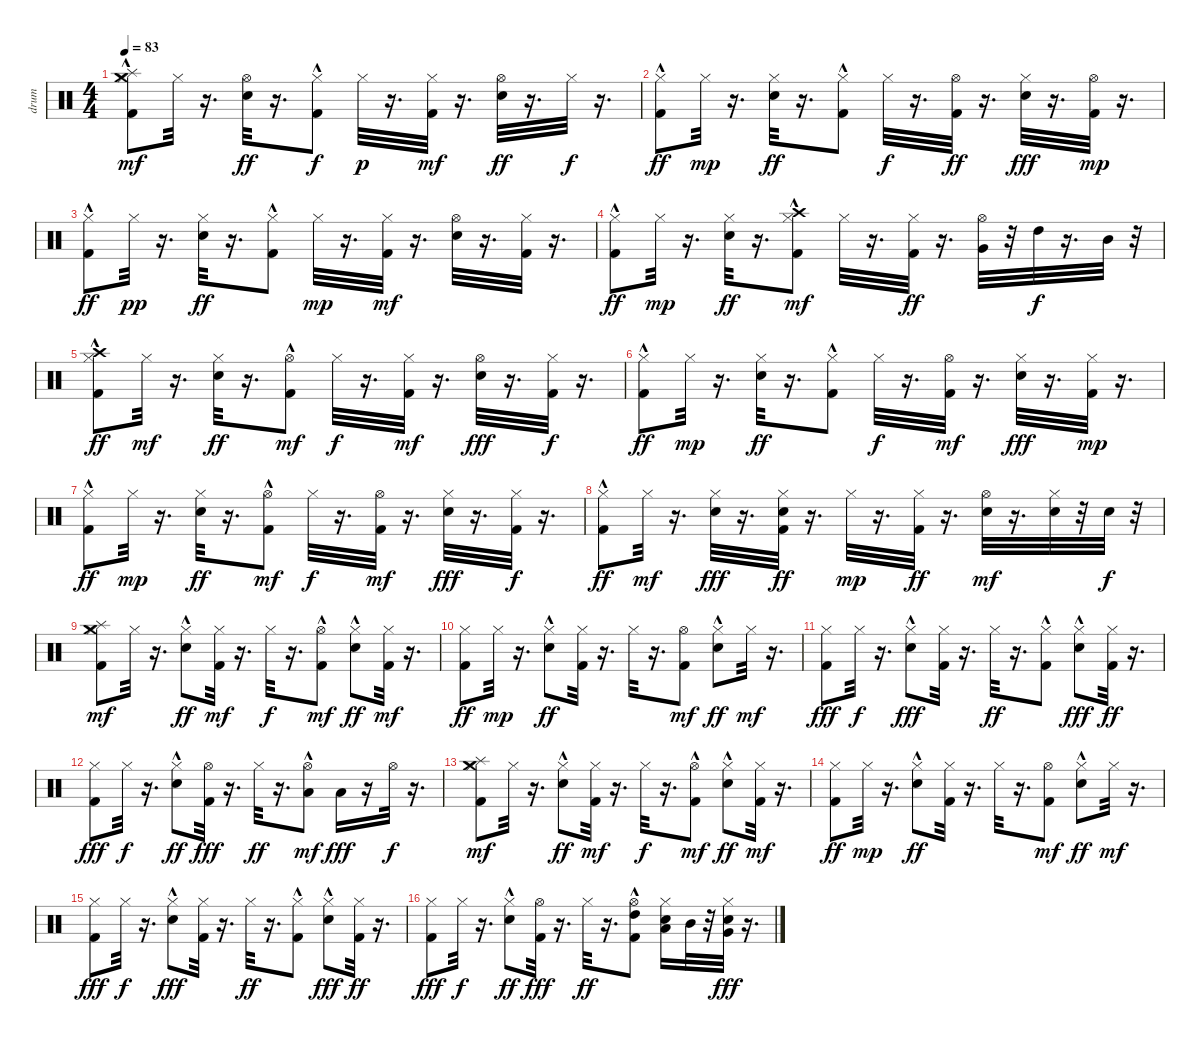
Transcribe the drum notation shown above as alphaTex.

\track ("drum" "drum") {instrument percussion}
\staff {score}
\articulation defaults
\ts (4 4)
\tempo 83
\clef neutral
\ks c
("Kick (hit) 2"{hac} "Hi-Hat (closed)" "Splash (hit)" "Crash medium (hit)").8{dy mf} "Hi-Hat (closed)".32 r.16{d} ("Electric Snare (hit)" "Hi-Hat (open)").32{dy ff} r.16{d} ("Kick (hit) 2"{hac} "Hi-Hat (closed)").8{dy f} "Hi-Hat (closed)".32{dy p} r.16{d} ("Kick (hit) 2" "Hi-Hat (closed)").32{dy mf} r.16{d} ("Electric Snare (hit)" "Hi-Hat (open)").32{dy ff} r.16{d} "Hi-Hat (closed)".32{dy f} r.16{d} |
("Kick (hit) 2"{hac} "Hi-Hat (closed)").8{dy ff} "Hi-Hat (closed)".32{dy mp} r.16{d} ("Electric Snare (hit)" "Hi-Hat (closed)").32{dy ff} r.16{d} ("Kick (hit) 2"{hac} "Hi-Hat (closed)").8 "Hi-Hat (closed)".32{dy f} r.16{d} ("Kick (hit) 2" "Hi-Hat (open)").32{dy ff} r.16{d} ("Electric Snare (hit)" "Hi-Hat (closed)").32{dy fff} r.16{d} ("Kick (hit) 2" "Hi-Hat (open)").32{dy mp} r.16{d} |
("Kick (hit) 2"{hac} "Hi-Hat (closed)").8{dy ff} "Hi-Hat (closed)".32{dy pp} r.16{d} ("Electric Snare (hit)" "Hi-Hat (closed)").32{dy ff} r.16{d} ("Kick (hit) 2"{hac} "Hi-Hat (closed)").8 "Hi-Hat (closed)".32{dy mp} r.16{d} ("Kick (hit) 2" "Hi-Hat (closed)").32{dy mf} r.16{d} ("Electric Snare (hit)" "Hi-Hat (open)").32 r.16{d} ("Kick (hit) 2" "Hi-Hat (closed)").32 r.16{d} |
("Kick (hit) 2"{hac} "Hi-Hat (closed)").8{dy ff} "Hi-Hat (closed)".32{dy mp} r.16{d} ("Electric Snare (hit)" "Hi-Hat (closed)").32{dy ff} r.16{d} ("Kick (hit) 2"{hac} "Hi-Hat (closed)" "Crash high (hit)"{hac}).8{dy mf} "Hi-Hat (closed)".32 r.16{d} ("Kick (hit) 2" "Hi-Hat (closed)").32{dy ff} r.16{d} ("Very Low Tom (hit)" "Hi-Hat (open)").32 r.32 "High Tom (hit)".32{dy f} r.16{d} "Mid Tom (hit)".32 r.32 |
("Kick (hit) 2"{hac} "Hi-Hat (closed)" "Crash high (hit)").8{dy ff} "Hi-Hat (closed)".32{dy mf} r.16{d} ("Electric Snare (hit)" "Hi-Hat (closed)").32{dy ff} r.16{d} ("Kick (hit) 2"{hac} "Hi-Hat (open)").8{dy mf} "Hi-Hat (closed)".32{dy f} r.16{d} ("Kick (hit) 2" "Hi-Hat (closed)").32{dy mf} r.16{d} ("Electric Snare (hit)" "Hi-Hat (open)").32{dy fff} r.16{d} ("Kick (hit) 2" "Hi-Hat (closed)").32{dy f} r.16{d} |
("Kick (hit) 2"{hac} "Hi-Hat (closed)").8{dy ff} "Hi-Hat (closed)".32{dy mp} r.16{d} ("Electric Snare (hit)" "Hi-Hat (closed)").32{dy ff} r.16{d} ("Kick (hit) 2"{hac} "Hi-Hat (closed)").8 "Hi-Hat (closed)".32{dy f} r.16{d} ("Kick (hit) 2" "Hi-Hat (open)").32{dy mf} r.16{d} ("Electric Snare (hit)" "Hi-Hat (closed)").32{dy fff} r.16{d} ("Kick (hit) 2" "Hi-Hat (closed)").32{dy mp} r.16{d} |
("Kick (hit) 2"{hac} "Hi-Hat (closed)").8{dy ff} "Hi-Hat (closed)".32{dy mp} r.16{d} ("Electric Snare (hit)" "Hi-Hat (closed)").32{dy ff} r.16{d} ("Kick (hit) 2"{hac} "Hi-Hat (open)").8{dy mf} "Hi-Hat (closed)".32{dy f} r.16{d} ("Kick (hit) 2" "Hi-Hat (open)").32{dy mf} r.16{d} ("Electric Snare (hit)" "Hi-Hat (closed)").32{dy fff} r.16{d} ("Kick (hit) 2" "Hi-Hat (closed)").32{dy f} r.16{d} |
("Kick (hit) 2"{hac} "Hi-Hat (closed)").8{dy ff} "Hi-Hat (closed)".32{dy mf} r.16{d} ("Electric Snare (hit)" "Hi-Hat (closed)").32{dy fff} r.16{d} ("Kick (hit) 2" "Electric Snare (hit)" "Hi-Hat (closed)").32{dy ff} r.16{d} "Hi-Hat (closed)".32{dy mp} r.16{d} ("Kick (hit) 2" "Hi-Hat (closed)").32{dy ff} r.16{d} ("Electric Snare (hit)" "Hi-Hat (open)").32{dy mf} r.16{d} ("Electric Snare (hit)" "Hi-Hat (closed)").32 r.32 "Electric Snare (hit)".32{dy f} r.32 |
("Kick (hit) 2" "Hi-Hat (closed)" "Splash (hit)" "Crash medium (hit)").8{dy mf} "Hi-Hat (closed)".32 r.16{d} ("Electric Snare (hit)"{hac} "Hi-Hat (closed)").8{dy ff} ("Kick (hit) 2" "Hi-Hat (closed)").32{dy mf} r.16{d} "Hi-Hat (closed)".32{dy f} r.16{d} ("Kick (hit) 2"{hac} "Hi-Hat (open)").8{dy mf} ("Electric Snare (hit)"{hac} "Hi-Hat (closed)").8{dy ff} ("Kick (hit) 2" "Hi-Hat (closed)").32{dy mf} r.16{d} |
("Kick (hit) 2" "Hi-Hat (closed)").8{dy ff} "Hi-Hat (closed)".32{dy mp} r.16{d} ("Electric Snare (hit)"{hac} "Hi-Hat (closed)").8{dy ff} ("Kick (hit) 2" "Hi-Hat (closed)").32 r.16{d} "Hi-Hat (closed)".32 r.16{d} ("Kick (hit) 2" "Hi-Hat (open)").8{dy mf} ("Electric Snare (hit)"{hac} "Hi-Hat (closed)").8{dy ff} "Hi-Hat (closed)".32{dy mf} r.16{d} |
("Kick (hit) 2" "Hi-Hat (closed)").8{dy fff} "Hi-Hat (closed)".32{dy f} r.16{d} ("Electric Snare (hit)"{hac} "Hi-Hat (closed)").8{dy fff} ("Kick (hit) 2" "Hi-Hat (closed)").32 r.16{d} "Hi-Hat (closed)".32{dy ff} r.16{d} ("Kick (hit) 2"{hac} "Hi-Hat (closed)").8 ("Electric Snare (hit)"{hac} "Hi-Hat (closed)").8{dy fff} ("Kick (hit) 2" "Hi-Hat (closed)").32{dy ff} r.16{d} |
("Kick (hit) 2" "Hi-Hat (closed)").8{dy fff} "Hi-Hat (closed)".32{dy f} r.16{d} ("Electric Snare (hit)"{hac} "Hi-Hat (closed)").8{dy ff} ("Kick (hit) 2" "Hi-Hat (open)").32{dy fff} r.16{d} "Hi-Hat (closed)".32{dy ff} r.16{d} ("Low Floor Tom (hit)"{hac} "Hi-Hat (open)").8{dy mf} "Low Tom (hit)".16{dy fff} r.16 "Hi-Hat (open)".32{dy f} r.16{d} |
("Kick (hit) 2" "Hi-Hat (closed)" "Splash (hit)" "Crash medium (hit)").8{dy mf} "Hi-Hat (closed)".32 r.16{d} ("Electric Snare (hit)"{hac} "Hi-Hat (closed)").8{dy ff} ("Kick (hit) 2" "Hi-Hat (closed)").32{dy mf} r.16{d} "Hi-Hat (closed)".32{dy f} r.16{d} ("Kick (hit) 2"{hac} "Hi-Hat (open)").8{dy mf} ("Electric Snare (hit)"{hac} "Hi-Hat (closed)").8{dy ff} ("Kick (hit) 2" "Hi-Hat (closed)").32{dy mf} r.16{d} |
("Kick (hit) 2" "Hi-Hat (closed)").8{dy ff} "Hi-Hat (closed)".32{dy mp} r.16{d} ("Electric Snare (hit)"{hac} "Hi-Hat (closed)").8{dy ff} ("Kick (hit) 2" "Hi-Hat (closed)").32 r.16{d} "Hi-Hat (closed)".32 r.16{d} ("Kick (hit) 2" "Hi-Hat (open)").8{dy mf} ("Electric Snare (hit)"{hac} "Hi-Hat (closed)").8{dy ff} "Hi-Hat (closed)".32{dy mf} r.16{d} |
("Kick (hit) 2" "Hi-Hat (closed)").8{dy fff} "Hi-Hat (closed)".32{dy f} r.16{d} ("Electric Snare (hit)"{hac} "Hi-Hat (closed)").8{dy fff} ("Kick (hit) 2" "Hi-Hat (closed)").32 r.16{d} "Hi-Hat (closed)".32{dy ff} r.16{d} ("Kick (hit) 2"{hac} "Hi-Hat (closed)").8 ("Electric Snare (hit)"{hac} "Hi-Hat (closed)").8{dy fff} ("Kick (hit) 2" "Hi-Hat (closed)").32{dy ff} r.16{d} |
("Kick (hit) 2" "Hi-Hat (closed)").8{dy fff} "Hi-Hat (closed)".32{dy f} r.16{d} ("Electric Snare (hit)"{hac} "Hi-Hat (closed)").8{dy ff} ("Kick (hit) 2" "Hi-Hat (open)").32{dy fff} r.16{d} "Hi-Hat (closed)".32{dy ff} r.16{d} ("Kick (hit) 2"{hac} "Hi-Hat (open)" "High Tom (hit)").8 ("Electric Snare (hit)" "Hi-Hat (closed)" "Low Tom (hit)").16 "Mid Tom (hit)".32 r.32 ("Electric Snare (hit)" "Hi-Hat (closed)" "Very Low Tom (hit)").32{dy fff} r.16{d}
